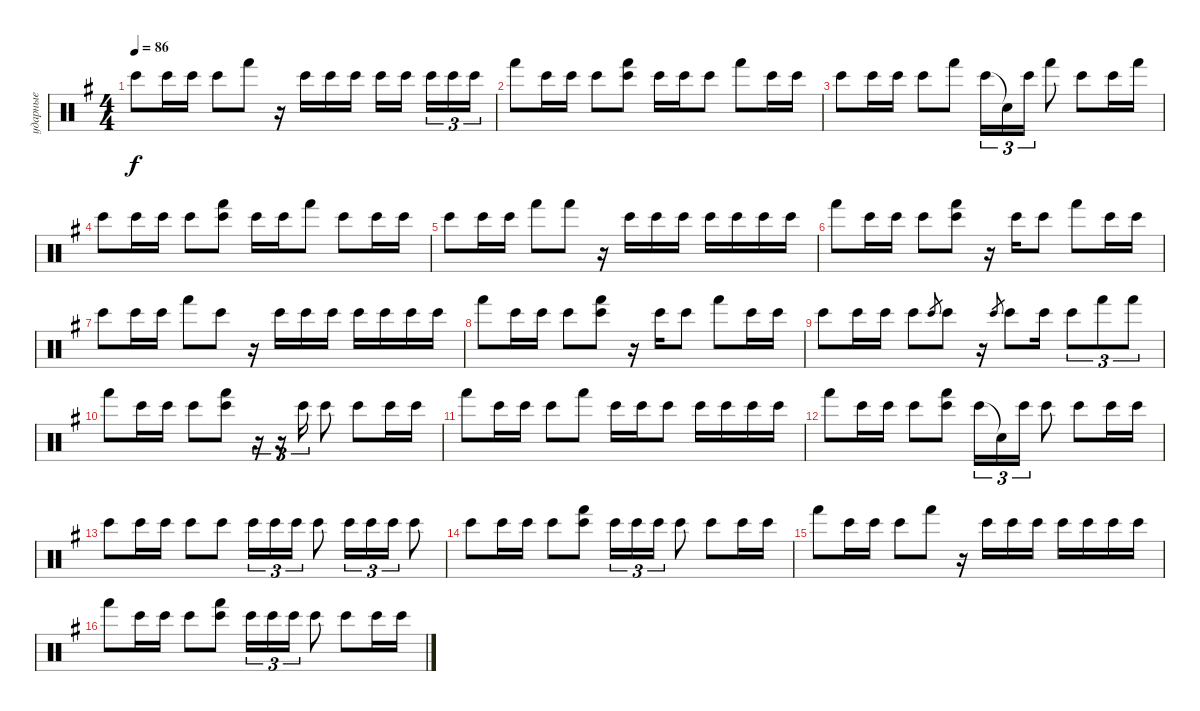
\track ("ударные" "ударные") {instrument percussion}
\staff {score}
\articulation defaults
\ts (4 4)
\tempo 86
\clef neutral
\ks eminor "Bongo High (hit)".8{dy f} "Bongo High (hit)".16 "Bongo High (hit)".16 "Bongo High (hit)".8 "Hand (hit)".8
r.16 "Bongo High (hit)".16 "Bongo High (hit)".16 "Bongo High (hit)".16 "Bongo High (hit)".16 "Bongo High (hit)".16{beam splitsecondary} "Bongo High (hit)".16{tu (3 2)} "Bongo High (hit)".16{tu (3 2)} "Bongo High (hit)".16{tu (3 2)} |
"Hand (hit)".8 "Bongo High (hit)".16 "Bongo High (hit)".16 "Bongo High (hit)".8 ("Bongo High (hit)" "Hand (hit)").8 "Bongo High (hit)".16 "Bongo High (hit)".16 "Bongo High (hit)".8 "Hand (hit)".8 "Bongo High (hit)".16 "Bongo High (hit)".16 |
"Bongo High (hit)".8 "Bongo High (hit)".16 "Bongo High (hit)".16 "Bongo High (hit)".8 "Hand (hit)".8 "Bongo High (hit)".16{tu (3 2)} "Snare (hit)"{t}.16{tu (3 2)} "Bongo High (hit)".16{tu (3 2)} "Hand (hit)".8 "Bongo High (hit)".8 "Bongo High (hit)".16 "Hand (hit)".16 |
"Bongo High (hit)".8 "Bongo High (hit)".16 "Bongo High (hit)".16 "Bongo High (hit)".8 ("Bongo High (hit)" "Hand (hit)").8 "Bongo High (hit)".16 "Bongo High (hit)".16 "Hand (hit)".8 "Bongo High (hit)".8 "Bongo High (hit)".16 "Bongo High (hit)".16 |
"Bongo High (hit)".8 "Bongo High (hit)".16 "Bongo High (hit)".16 "Hand (hit)".8 "Hand (hit)".8 r.16 "Bongo High (hit)".16 "Bongo High (hit)".16 "Bongo High (hit)".16 "Bongo High (hit)".16 "Bongo High (hit)".16 "Bongo High (hit)".16 "Bongo High (hit)".16 |
"Hand (hit)".8 "Bongo High (hit)".16 "Bongo High (hit)".16 "Bongo High (hit)".8 ("Bongo High (hit)" "Hand (hit)").8 r.16 "Bongo High (hit)".16 "Bongo High (hit)".8 "Hand (hit)".8 "Bongo High (hit)".16 "Bongo High (hit)".16 |
"Bongo High (hit)".8 "Bongo High (hit)".16 "Bongo High (hit)".16 "Hand (hit)".8 "Bongo High (hit)".8 r.16 "Bongo High (hit)".16 "Bongo High (hit)".16 "Bongo High (hit)".16 "Bongo High (hit)".16 "Bongo High (hit)".16 "Bongo High (hit)".16 "Bongo High (hit)".16 |
"Hand (hit)".8 "Bongo High (hit)".16 "Bongo High (hit)".16 "Bongo High (hit)".8 ("Bongo High (hit)" "Hand (hit)").8 r.16 "Bongo High (hit)".16 "Bongo High (hit)".8 "Hand (hit)".8 "Bongo High (hit)".16 "Bongo High (hit)".16 |
"Bongo High (hit)".8 "Bongo High (hit)".16 "Bongo High (hit)".16 "Bongo High (hit)".8 "Bongo High (hit)".8{gr} "Bongo High (hit)".8 r.16 "Bongo High (hit)".8{gr} "Bongo High (hit)".8 "Bongo High (hit)".16 "Bongo High (hit)".8{tu (3 2)} "Hand (hit)".8{tu (3 2)} "Hand (hit)".8{tu (3 2)} |
"Hand (hit)".8 "Bongo High (hit)".16 "Bongo High (hit)".16 "Bongo High (hit)".8 ("Bongo High (hit)" "Hand (hit)").8 r.16{tu (3 2)} r.16{tu (3 2)} "Bongo High (hit)".16{tu (3 2)} "Bongo High (hit)".8 "Bongo High (hit)".8 "Bongo High (hit)".16 "Bongo High (hit)".16 |
"Hand (hit)".8 "Bongo High (hit)".16 "Bongo High (hit)".16 "Bongo High (hit)".8 "Hand (hit)".8 "Bongo High (hit)".16 "Bongo High (hit)".16 "Bongo High (hit)".8 "Bongo High (hit)".16 "Bongo High (hit)".16 "Bongo High (hit)".16 "Bongo High (hit)".16 |
"Hand (hit)".8 "Bongo High (hit)".16 "Bongo High (hit)".16 "Bongo High (hit)".8 ("Bongo High (hit)" "Hand (hit)").8 "Bongo High (hit)".16{tu (3 2)} "Snare (hit)"{t}.16{tu (3 2)} "Bongo High (hit)".16{tu (3 2)} "Bongo High (hit)".8 "Bongo High (hit)".8 "Bongo High (hit)".16 "Bongo High (hit)".16 |
"Bongo High (hit)".8 "Bongo High (hit)".16 "Bongo High (hit)".16 "Bongo High (hit)".8 "Bongo High (hit)".8 "Bongo High (hit)".16{tu (3 2)} "Bongo High (hit)".16{tu (3 2)} "Bongo High (hit)".16{tu (3 2)} "Bongo High (hit)".8 "Bongo High (hit)".16{tu (3 2)} "Bongo High (hit)".16{tu (3 2)} "Bongo High (hit)".16{tu (3 2)} "Bongo High (hit)".8 |
"Bongo High (hit)".8 "Bongo High (hit)".16 "Bongo High (hit)".16 "Bongo High (hit)".8 ("Bongo High (hit)" "Hand (hit)").8 "Bongo High (hit)".16{tu (3 2)} "Bongo High (hit)".16{tu (3 2)} "Bongo High (hit)".16{tu (3 2)} "Bongo High (hit)".8 "Bongo High (hit)".8 "Bongo High (hit)".16 "Bongo High (hit)".16 |
"Hand (hit)".8 "Bongo High (hit)".16 "Bongo High (hit)".16 "Bongo High (hit)".8 "Hand (hit)".8 r.16 "Bongo High (hit)".16 "Bongo High (hit)".16 "Bongo High (hit)".16 "Bongo High (hit)".16 "Bongo High (hit)".16 "Bongo High (hit)".16 "Bongo High (hit)".16 |
"Hand (hit)".8 "Bongo High (hit)".16 "Bongo High (hit)".16 "Bongo High (hit)".8 ("Bongo High (hit)" "Hand (hit)").8 "Bongo High (hit)".16{tu (3 2)} "Bongo High (hit)".16{tu (3 2)} "Bongo High (hit)".16{tu (3 2)} "Bongo High (hit)".8 "Bongo High (hit)".8 "Bongo High (hit)".16 "Bongo High (hit)".16
